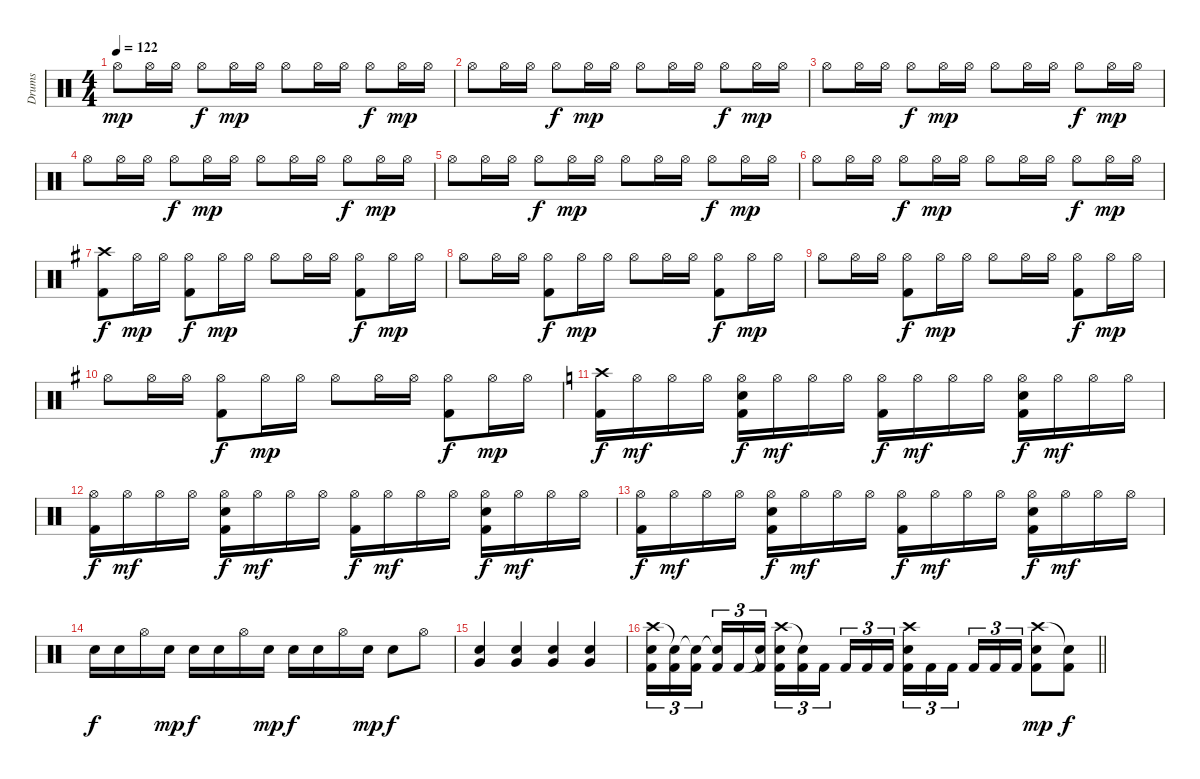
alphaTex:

\track ("Drums" "Drums") {instrument percussion}
\staff {score}
\articulation defaults
\ts (4 4)
\tempo 122
\clef neutral
\ks c "Hi-Hat (open)".8{dy mp} "Hi-Hat (open)".16 "Hi-Hat (open)".16 "Hi-Hat (open)".8{dy f} "Hi-Hat (open)".16{dy mp} "Hi-Hat (open)".16 "Hi-Hat (open)".8 "Hi-Hat (open)".16 "Hi-Hat (open)".16 "Hi-Hat (open)".8{dy f} "Hi-Hat (open)".16{dy mp} "Hi-Hat (open)".16
|
"Hi-Hat (open)".8 "Hi-Hat (open)".16 "Hi-Hat (open)".16 "Hi-Hat (open)".8{dy f} "Hi-Hat (open)".16{dy mp} "Hi-Hat (open)".16 "Hi-Hat (open)".8 "Hi-Hat (open)".16 "Hi-Hat (open)".16 "Hi-Hat (open)".8{dy f} "Hi-Hat (open)".16{dy mp} "Hi-Hat (open)".16 |
"Hi-Hat (open)".8 "Hi-Hat (open)".16 "Hi-Hat (open)".16 "Hi-Hat (open)".8{dy f} "Hi-Hat (open)".16{dy mp} "Hi-Hat (open)".16 "Hi-Hat (open)".8 "Hi-Hat (open)".16 "Hi-Hat (open)".16 "Hi-Hat (open)".8{dy f} "Hi-Hat (open)".16{dy mp} "Hi-Hat (open)".16 |
"Hi-Hat (open)".8 "Hi-Hat (open)".16 "Hi-Hat (open)".16 "Hi-Hat (open)".8{dy f} "Hi-Hat (open)".16{dy mp} "Hi-Hat (open)".16 "Hi-Hat (open)".8 "Hi-Hat (open)".16 "Hi-Hat (open)".16 "Hi-Hat (open)".8{dy f} "Hi-Hat (open)".16{dy mp} "Hi-Hat (open)".16 |
"Hi-Hat (open)".8 "Hi-Hat (open)".16 "Hi-Hat (open)".16 "Hi-Hat (open)".8{dy f} "Hi-Hat (open)".16{dy mp} "Hi-Hat (open)".16 "Hi-Hat (open)".8 "Hi-Hat (open)".16 "Hi-Hat (open)".16 "Hi-Hat (open)".8{dy f} "Hi-Hat (open)".16{dy mp} "Hi-Hat (open)".16 |
"Hi-Hat (open)".8 "Hi-Hat (open)".16 "Hi-Hat (open)".16 "Hi-Hat (open)".8{dy f} "Hi-Hat (open)".16{dy mp} "Hi-Hat (open)".16 "Hi-Hat (open)".8 "Hi-Hat (open)".16 "Hi-Hat (open)".16 "Hi-Hat (open)".8{dy f} "Hi-Hat (open)".16{dy mp} "Hi-Hat (open)".16 |
\ks g
("Crash high (hit)" "Kick (hit) 2").8{dy f} "Hi-Hat (open)".16{dy mp} "Hi-Hat (open)".16 ("Hi-Hat (open)" "Kick (hit) 2").8{dy f} "Hi-Hat (open)".16{dy mp} "Hi-Hat (open)".16 "Hi-Hat (open)".8 "Hi-Hat (open)".16 "Hi-Hat (open)".16 ("Hi-Hat (open)" "Kick (hit) 2").8{dy f} "Hi-Hat (open)".16{dy mp} "Hi-Hat (open)".16 |
"Hi-Hat (open)".8 "Hi-Hat (open)".16 "Hi-Hat (open)".16 ("Hi-Hat (open)" "Kick (hit) 2").8{dy f} "Hi-Hat (open)".16{dy mp} "Hi-Hat (open)".16 "Hi-Hat (open)".8 "Hi-Hat (open)".16 "Hi-Hat (open)".16 ("Hi-Hat (open)" "Kick (hit) 2").8{dy f} "Hi-Hat (open)".16{dy mp} "Hi-Hat (open)".16 |
"Hi-Hat (open)".8 "Hi-Hat (open)".16 "Hi-Hat (open)".16 ("Hi-Hat (open)" "Kick (hit) 2").8{dy f} "Hi-Hat (open)".16{dy mp} "Hi-Hat (open)".16 "Hi-Hat (open)".8 "Hi-Hat (open)".16 "Hi-Hat (open)".16 ("Hi-Hat (open)" "Kick (hit) 2").8{dy f} "Hi-Hat (open)".16{dy mp} "Hi-Hat (open)".16 |
"Hi-Hat (open)".8 "Hi-Hat (open)".16 "Hi-Hat (open)".16 ("Hi-Hat (open)" "Kick (hit) 2").8{dy f} "Hi-Hat (open)".16{dy mp} "Hi-Hat (open)".16 "Hi-Hat (open)".8 "Hi-Hat (open)".16 "Hi-Hat (open)".16 ("Hi-Hat (open)" "Kick (hit) 2").8{dy f} "Hi-Hat (open)".16{dy mp} "Hi-Hat (open)".16 |
\ks c
("Crash high (hit)" "Kick (hit) 2").16{dy f} "Hi-Hat (open)".16{dy mf} "Hi-Hat (open)".16 "Hi-Hat (open)".16 ("Hi-Hat (open)" "Electric Snare (hit)" "Kick (hit) 2").16{dy f} "Hi-Hat (open)".16{dy mf} "Hi-Hat (open)".16 "Hi-Hat (open)".16 ("Hi-Hat (open)" "Kick (hit) 2").16{dy f} "Hi-Hat (open)".16{dy mf} "Hi-Hat (open)".16 "Hi-Hat (open)".16 ("Hi-Hat (open)" "Electric Snare (hit)" "Kick (hit) 2").16{dy f} "Hi-Hat (open)".16{dy mf} "Hi-Hat (open)".16 "Hi-Hat (open)".16 |
("Hi-Hat (open)" "Kick (hit) 2").16{dy f} "Hi-Hat (open)".16{dy mf} "Hi-Hat (open)".16 "Hi-Hat (open)".16 ("Hi-Hat (open)" "Electric Snare (hit)" "Kick (hit) 2").16{dy f} "Hi-Hat (open)".16{dy mf} "Hi-Hat (open)".16 "Hi-Hat (open)".16 ("Hi-Hat (open)" "Kick (hit) 2").16{dy f} "Hi-Hat (open)".16{dy mf} "Hi-Hat (open)".16 "Hi-Hat (open)".16 ("Hi-Hat (open)" "Electric Snare (hit)" "Kick (hit) 2").16{dy f} "Hi-Hat (open)".16{dy mf} "Hi-Hat (open)".16 "Hi-Hat (open)".16 |
("Hi-Hat (open)" "Kick (hit) 2").16{dy f} "Hi-Hat (open)".16{dy mf} "Hi-Hat (open)".16 "Hi-Hat (open)".16 ("Hi-Hat (open)" "Electric Snare (hit)" "Kick (hit) 2").16{dy f} "Hi-Hat (open)".16{dy mf} "Hi-Hat (open)".16 "Hi-Hat (open)".16 ("Hi-Hat (open)" "Kick (hit) 2").16{dy f} "Hi-Hat (open)".16{dy mf} "Hi-Hat (open)".16 "Hi-Hat (open)".16 ("Hi-Hat (open)" "Electric Snare (hit)" "Kick (hit) 2").16{dy f} "Hi-Hat (open)".16{dy mf} "Hi-Hat (open)".16 "Hi-Hat (open)".16 |
"Electric Snare (hit)".16{dy f} "Electric Snare (hit)".16 "Hi-Hat (open)".16 "Electric Snare (hit)".16{dy mp} "Electric Snare (hit)".16{dy f} "Electric Snare (hit)".16 "Hi-Hat (open)".16 "Electric Snare (hit)".16{dy mp} "Electric Snare (hit)".16{dy f} "Electric Snare (hit)".16 "Hi-Hat (open)".16 "Electric Snare (hit)".16{dy mp} "Electric Snare (hit)".8{dy f} "Hi-Hat (open)".8 |
("Very Low Tom (hit)" "Electric Snare (hit)").4 ("Very Low Tom (hit)" "Electric Snare (hit)").4 ("Very Low Tom (hit)" "Electric Snare (hit)").4 ("Very Low Tom (hit)" "Electric Snare (hit)").4 |
\barLineRight lightlight
("Crash high (hit)" "Electric Snare (hit)" "Kick (hit) 2").16{tu (3 2)} ("Snare (hit)"{t} "Kick (hit) 2").16{tu (3 2)} ("Snare (hit)"{t} "Kick (hit) 2").16{tu (3 2) beam splitsecondary} ("Snare (hit)"{t} "Kick (hit) 2").16{tu (3 2)} "Kick (hit) 2".16{tu (3 2)} ("Snare (hit)"{t} "Kick (hit) 2").16{tu (3 2)} ("Crash high (hit)" "Electric Snare (hit)" "Kick (hit) 2").16{tu (3 2)} ("Snare (hit)"{t} "Kick (hit) 2").16{tu (3 2)} "Kick (hit) 2".16{tu (3 2) beam splitsecondary} "Kick (hit) 2".16{tu (3 2)} "Kick (hit) 2".16{tu (3 2)} "Kick (hit) 2".16{tu (3 2)} ("Crash high (hit)" "Electric Snare (hit)" "Kick (hit) 2").16{tu (3 2)} "Kick (hit) 2".16{tu (3 2)} "Kick (hit) 2".16{tu (3 2) beam splitsecondary} "Kick (hit) 2".16{tu (3 2)} "Kick (hit) 2".16{tu (3 2)} "Kick (hit) 2".16{tu (3 2)} ("Crash high (hit)" "Electric Snare (hit)" "Kick (hit) 2").8{dy mp} ("Snare (hit)"{t} "Kick (hit) 2").8{dy f}
